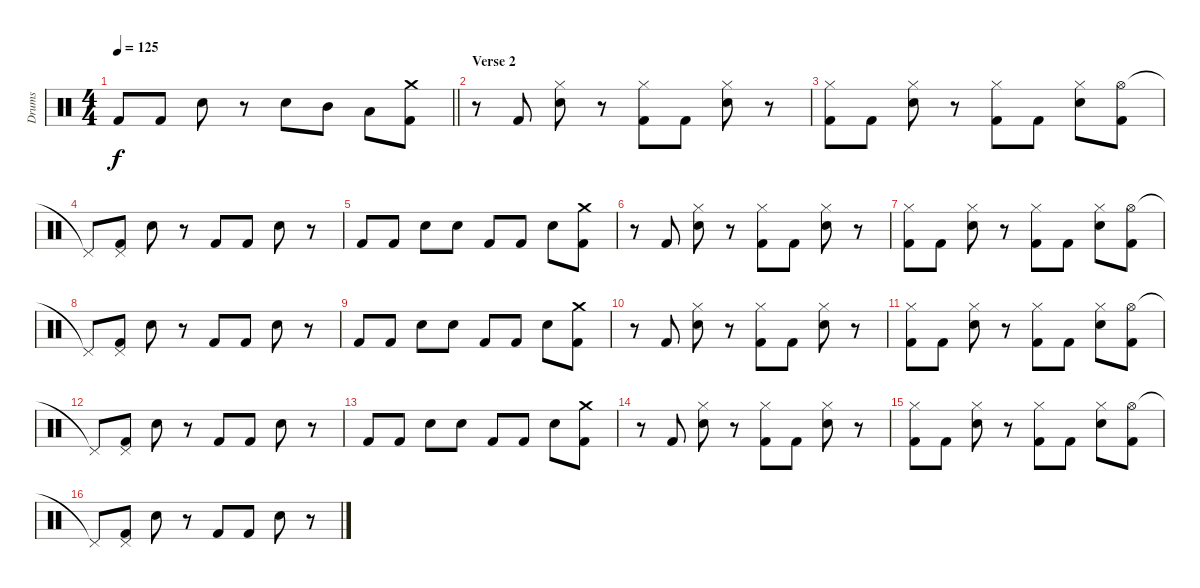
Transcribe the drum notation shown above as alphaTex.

\track ("Drums" "Drums") {instrument percussion}
\staff {score}
\articulation defaults
\ts (4 4)
\tempo 125
\clef neutral
\barLineRight lightlight
\ks c "Kick (hit) 2".8{dy f} "Kick (hit) 2".8 "Snare (hit) 2".8
r.8 "Snare (hit) 2".8 "Mid Tom (hit)".8 "Low Tom (hit)".8 ("Crash medium (hit)" "Kick (hit) 2").8 |
\section ("" "Verse 2")
r.8 "Kick (hit) 2".8 ("Hi-Hat (closed)" "Snare (hit) 2").8 r.8 ("Hi-Hat (closed)" "Kick (hit) 2").8 "Kick (hit) 2".8 ("Hi-Hat (closed)" "Snare (hit) 2").8 r.8 |
("Hi-Hat (closed)" "Kick (hit) 2").8 "Kick (hit) 2".8 ("Hi-Hat (closed)" "Snare (hit) 2").8 r.8 ("Hi-Hat (closed)" "Kick (hit) 2").8 "Kick (hit) 2".8 ("Hi-Hat (closed)" "Snare (hit) 2").8 ("Hi-Hat (open)" "Kick (hit) 2").8 |
"Pedal Hi-Hat (hit)"{t}.8 ("Pedal Hi-Hat (hit)" "Kick (hit) 2").8 "Snare (hit) 2".8 r.8 "Kick (hit) 2".8 "Kick (hit) 2".8 "Snare (hit) 2".8 r.8 |
"Kick (hit) 2".8 "Kick (hit) 2".8 "Snare (hit) 2".8 "Snare (hit) 2".8 "Kick (hit) 2".8 "Kick (hit) 2".8 "Snare (hit) 2".8 ("Crash medium (hit)" "Kick (hit) 2").8 |
r.8 "Kick (hit) 2".8 ("Hi-Hat (closed)" "Snare (hit) 2").8 r.8 ("Hi-Hat (closed)" "Kick (hit) 2").8 "Kick (hit) 2".8 ("Hi-Hat (closed)" "Snare (hit) 2").8 r.8 |
("Hi-Hat (closed)" "Kick (hit) 2").8 "Kick (hit) 2".8 ("Hi-Hat (closed)" "Snare (hit) 2").8 r.8 ("Hi-Hat (closed)" "Kick (hit) 2").8 "Kick (hit) 2".8 ("Hi-Hat (closed)" "Snare (hit) 2").8 ("Hi-Hat (open)" "Kick (hit) 2").8 |
"Pedal Hi-Hat (hit)"{t}.8 ("Pedal Hi-Hat (hit)" "Kick (hit) 2").8 "Snare (hit) 2".8 r.8 "Kick (hit) 2".8 "Kick (hit) 2".8 "Snare (hit) 2".8 r.8 |
"Kick (hit) 2".8 "Kick (hit) 2".8 "Snare (hit) 2".8 "Snare (hit) 2".8 "Kick (hit) 2".8 "Kick (hit) 2".8 "Snare (hit) 2".8 ("Crash medium (hit)" "Kick (hit) 2").8 |
r.8 "Kick (hit) 2".8 ("Hi-Hat (closed)" "Snare (hit) 2").8 r.8 ("Hi-Hat (closed)" "Kick (hit) 2").8 "Kick (hit) 2".8 ("Hi-Hat (closed)" "Snare (hit) 2").8 r.8 |
("Hi-Hat (closed)" "Kick (hit) 2").8 "Kick (hit) 2".8 ("Hi-Hat (closed)" "Snare (hit) 2").8 r.8 ("Hi-Hat (closed)" "Kick (hit) 2").8 "Kick (hit) 2".8 ("Hi-Hat (closed)" "Snare (hit) 2").8 ("Hi-Hat (open)" "Kick (hit) 2").8 |
"Pedal Hi-Hat (hit)"{t}.8 ("Pedal Hi-Hat (hit)" "Kick (hit) 2").8 "Snare (hit) 2".8 r.8 "Kick (hit) 2".8 "Kick (hit) 2".8 "Snare (hit) 2".8 r.8 |
"Kick (hit) 2".8 "Kick (hit) 2".8 "Snare (hit) 2".8 "Snare (hit) 2".8 "Kick (hit) 2".8 "Kick (hit) 2".8 "Snare (hit) 2".8 ("Crash medium (hit)" "Kick (hit) 2").8 |
r.8 "Kick (hit) 2".8 ("Hi-Hat (closed)" "Snare (hit) 2").8 r.8 ("Hi-Hat (closed)" "Kick (hit) 2").8 "Kick (hit) 2".8 ("Hi-Hat (closed)" "Snare (hit) 2").8 r.8 |
("Hi-Hat (closed)" "Kick (hit) 2").8 "Kick (hit) 2".8 ("Hi-Hat (closed)" "Snare (hit) 2").8 r.8 ("Hi-Hat (closed)" "Kick (hit) 2").8 "Kick (hit) 2".8 ("Hi-Hat (closed)" "Snare (hit) 2").8 ("Hi-Hat (open)" "Kick (hit) 2").8 |
"Pedal Hi-Hat (hit)"{t}.8 ("Pedal Hi-Hat (hit)" "Kick (hit) 2").8 "Snare (hit) 2".8 r.8 "Kick (hit) 2".8 "Kick (hit) 2".8 "Snare (hit) 2".8 r.8
